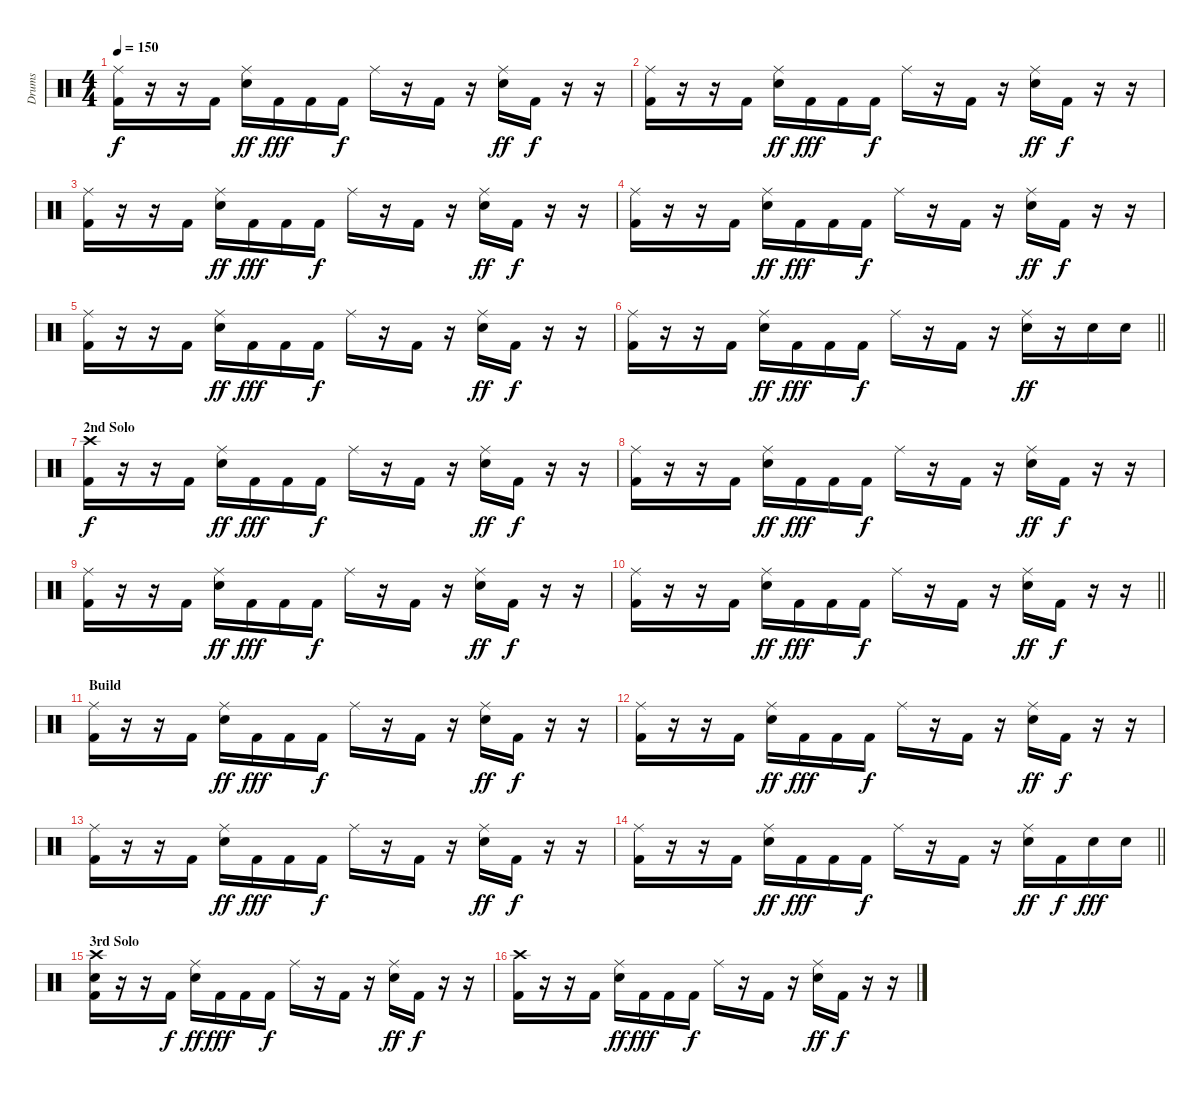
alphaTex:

\track ("Drums" "Drums") {instrument percussion}
\staff {score}
\articulation defaults
\ts (4 4)
\tempo 150
\clef neutral
\ks c
("Ride (middle)" "Kick (hit) 2").16{dy f} r.16 r.16 "Kick (hit) 2".16 ("Ride (middle)" "Electric Snare (hit)").16{dy ff} "Kick (hit) 2".16{dy fff} "Kick (hit) 2".16 "Kick (hit) 2".16{dy f} "Ride (middle)".16 r.16 "Kick (hit) 2".16 r.16 ("Ride (middle)" "Electric Snare (hit)").16{dy ff} "Kick (hit) 2".16{dy f} r.16 r.16 |
("Ride (middle)" "Kick (hit) 2").16 r.16 r.16 "Kick (hit) 2".16 ("Ride (middle)" "Electric Snare (hit)").16{dy ff} "Kick (hit) 2".16{dy fff} "Kick (hit) 2".16 "Kick (hit) 2".16{dy f} "Ride (middle)".16 r.16 "Kick (hit) 2".16 r.16 ("Ride (middle)" "Electric Snare (hit)").16{dy ff} "Kick (hit) 2".16{dy f} r.16 r.16 |
("Ride (middle)" "Kick (hit) 2").16 r.16 r.16 "Kick (hit) 2".16 ("Ride (middle)" "Electric Snare (hit)").16{dy ff} "Kick (hit) 2".16{dy fff} "Kick (hit) 2".16 "Kick (hit) 2".16{dy f} "Ride (middle)".16 r.16 "Kick (hit) 2".16 r.16 ("Ride (middle)" "Electric Snare (hit)").16{dy ff} "Kick (hit) 2".16{dy f} r.16 r.16 |
("Ride (middle)" "Kick (hit) 2").16 r.16 r.16 "Kick (hit) 2".16 ("Ride (middle)" "Electric Snare (hit)").16{dy ff} "Kick (hit) 2".16{dy fff} "Kick (hit) 2".16 "Kick (hit) 2".16{dy f} "Ride (middle)".16 r.16 "Kick (hit) 2".16 r.16 ("Ride (middle)" "Electric Snare (hit)").16{dy ff} "Kick (hit) 2".16{dy f} r.16 r.16 |
("Ride (middle)" "Kick (hit) 2").16 r.16 r.16 "Kick (hit) 2".16 ("Ride (middle)" "Electric Snare (hit)").16{dy ff} "Kick (hit) 2".16{dy fff} "Kick (hit) 2".16 "Kick (hit) 2".16{dy f} "Ride (middle)".16 r.16 "Kick (hit) 2".16 r.16 ("Ride (middle)" "Electric Snare (hit)").16{dy ff} "Kick (hit) 2".16{dy f} r.16 r.16 |
\barLineRight lightlight
("Ride (middle)" "Kick (hit) 2").16 r.16 r.16 "Kick (hit) 2".16 ("Ride (middle)" "Electric Snare (hit)").16{dy ff} "Kick (hit) 2".16{dy fff} "Kick (hit) 2".16 "Kick (hit) 2".16{dy f} "Ride (middle)".16 r.16 "Kick (hit) 2".16 r.16 ("Ride (middle)" "Electric Snare (hit)").16{dy ff} r.16 "Electric Snare (hit)".16 "Electric Snare (hit)".16 |
\section ("" "2nd Solo")
("Crash high (hit)" "Kick (hit) 2").16{dy f} r.16 r.16 "Kick (hit) 2".16 ("Ride (middle)" "Electric Snare (hit)").16{dy ff} "Kick (hit) 2".16{dy fff} "Kick (hit) 2".16 "Kick (hit) 2".16{dy f} "Ride (middle)".16 r.16 "Kick (hit) 2".16 r.16 ("Ride (middle)" "Electric Snare (hit)").16{dy ff} "Kick (hit) 2".16{dy f} r.16 r.16 |
("Ride (middle)" "Kick (hit) 2").16 r.16 r.16 "Kick (hit) 2".16 ("Ride (middle)" "Electric Snare (hit)").16{dy ff} "Kick (hit) 2".16{dy fff} "Kick (hit) 2".16 "Kick (hit) 2".16{dy f} "Ride (middle)".16 r.16 "Kick (hit) 2".16 r.16 ("Ride (middle)" "Electric Snare (hit)").16{dy ff} "Kick (hit) 2".16{dy f} r.16 r.16 |
("Ride (middle)" "Kick (hit) 2").16 r.16 r.16 "Kick (hit) 2".16 ("Ride (middle)" "Electric Snare (hit)").16{dy ff} "Kick (hit) 2".16{dy fff} "Kick (hit) 2".16 "Kick (hit) 2".16{dy f} "Ride (middle)".16 r.16 "Kick (hit) 2".16 r.16 ("Ride (middle)" "Electric Snare (hit)").16{dy ff} "Kick (hit) 2".16{dy f} r.16 r.16 |
\barLineRight lightlight
("Ride (middle)" "Kick (hit) 2").16 r.16 r.16 "Kick (hit) 2".16 ("Ride (middle)" "Electric Snare (hit)").16{dy ff} "Kick (hit) 2".16{dy fff} "Kick (hit) 2".16 "Kick (hit) 2".16{dy f} "Ride (middle)".16 r.16 "Kick (hit) 2".16 r.16 ("Ride (middle)" "Electric Snare (hit)").16{dy ff} "Kick (hit) 2".16{dy f} r.16 r.16 |
\section ("" "Build")
("Ride (middle)" "Kick (hit) 2").16 r.16 r.16 "Kick (hit) 2".16 ("Ride (middle)" "Electric Snare (hit)").16{dy ff} "Kick (hit) 2".16{dy fff} "Kick (hit) 2".16 "Kick (hit) 2".16{dy f} "Ride (middle)".16 r.16 "Kick (hit) 2".16 r.16 ("Ride (middle)" "Electric Snare (hit)").16{dy ff} "Kick (hit) 2".16{dy f} r.16 r.16 |
("Ride (middle)" "Kick (hit) 2").16 r.16 r.16 "Kick (hit) 2".16 ("Ride (middle)" "Electric Snare (hit)").16{dy ff} "Kick (hit) 2".16{dy fff} "Kick (hit) 2".16 "Kick (hit) 2".16{dy f} "Ride (middle)".16 r.16 "Kick (hit) 2".16 r.16 ("Ride (middle)" "Electric Snare (hit)").16{dy ff} "Kick (hit) 2".16{dy f} r.16 r.16 |
("Ride (middle)" "Kick (hit) 2").16 r.16 r.16 "Kick (hit) 2".16 ("Ride (middle)" "Electric Snare (hit)").16{dy ff} "Kick (hit) 2".16{dy fff} "Kick (hit) 2".16 "Kick (hit) 2".16{dy f} "Ride (middle)".16 r.16 "Kick (hit) 2".16 r.16 ("Ride (middle)" "Electric Snare (hit)").16{dy ff} "Kick (hit) 2".16{dy f} r.16 r.16 |
\barLineRight lightlight
("Ride (middle)" "Kick (hit) 2").16 r.16 r.16 "Kick (hit) 2".16 ("Ride (middle)" "Electric Snare (hit)").16{dy ff} "Kick (hit) 2".16{dy fff} "Kick (hit) 2".16 "Kick (hit) 2".16{dy f} "Ride (middle)".16 r.16 "Kick (hit) 2".16 r.16 ("Ride (middle)" "Electric Snare (hit)").16{dy ff} "Kick (hit) 2".16{dy f} "Electric Snare (hit)".16{dy fff} "Electric Snare (hit)".16 |
\section ("" "3rd Solo")
("Crash high (hit)" "Electric Snare (hit)" "Kick (hit) 2").16 r.16 r.16 "Kick (hit) 2".16{dy f} ("Ride (middle)" "Electric Snare (hit)").16{dy ff} "Kick (hit) 2".16{dy fff} "Kick (hit) 2".16 "Kick (hit) 2".16{dy f} "Ride (middle)".16 r.16 "Kick (hit) 2".16 r.16 ("Ride (middle)" "Electric Snare (hit)").16{dy ff} "Kick (hit) 2".16{dy f} r.16 r.16 |
("Crash high (hit)" "Kick (hit) 2").16 r.16 r.16 "Kick (hit) 2".16 ("Ride (middle)" "Electric Snare (hit)").16{dy ff} "Kick (hit) 2".16{dy fff} "Kick (hit) 2".16 "Kick (hit) 2".16{dy f} "Ride (middle)".16 r.16 "Kick (hit) 2".16 r.16 ("Ride (middle)" "Electric Snare (hit)").16{dy ff} "Kick (hit) 2".16{dy f} r.16 r.16
